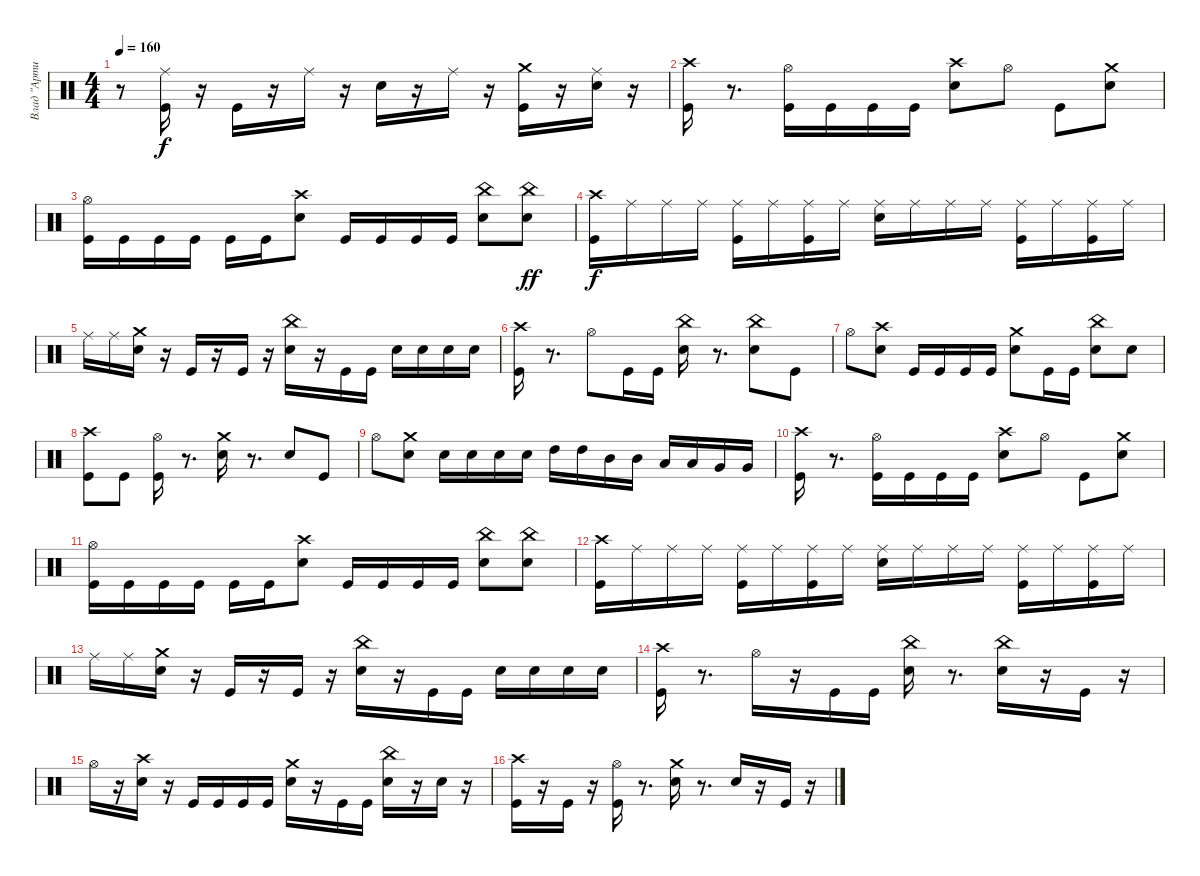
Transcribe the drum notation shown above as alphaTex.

\track ("Влад \"Артист\"" "Влад \"Арти") {instrument percussion}
\staff {score}
\articulation defaults
\ts (4 4)
\tempo 160
\clef neutral
\ks c
r.8{dy f} ("Kick (hit)" "Ride (middle)").16 r.16 "Kick (hit)".16 r.16 "Ride (middle)".16 r.16 "Snare (hit) 2".16 r.16 "Ride (middle)".16 r.16 ("Crash medium (hit)" "Kick (hit)").16 r.16 ("Ride (middle)" "Snare (hit) 2").16 r.16 |
("Kick (hit)" "Crash high (hit)").16 r.8{d} ("Kick (hit)" "Hi-Hat (open)").16 "Kick (hit)".16 "Kick (hit)".16 "Kick (hit)".16 ("Crash high (hit)" "Snare (hit) 2").8 "Hi-Hat (open)".8 "Kick (hit)".8 ("Snare (hit) 2" "Crash medium (hit)").8 |
("Kick (hit)" "Hi-Hat (open)").16 "Kick (hit)".16 "Kick (hit)".16 "Kick (hit)".16 "Kick (hit)".16 "Kick (hit)".16 ("Crash high (hit)" "Snare (hit) 2").8 "Kick (hit)".16 "Kick (hit)".16 "Kick (hit)".16 "Kick (hit)".16 ("China (hit)" "Snare (hit) 2").8 ("China (hit)" "Snare (hit) 2").8{dy ff} |
("Kick (hit)" "Crash high (hit)").16{dy f} "Ride (middle)".16 "Ride (middle)".16 "Ride (middle)".16 ("Kick (hit)" "Ride (middle)").16 "Ride (middle)".16 ("Ride (middle)" "Kick (hit)").16 "Ride (middle)".16 ("Ride (middle)" "Snare (hit) 2").16 "Ride (middle)".16 "Ride (middle)".16 "Ride (middle)".16 ("Kick (hit)" "Ride (middle)").16 "Ride (middle)".16 ("Kick (hit)" "Ride (middle)").16 "Ride (middle)".16 |
"Ride (middle)".16 "Ride (middle)".16 ("Crash medium (hit)" "Snare (hit) 2").16 r.16 "Kick (hit)".16 r.16 "Kick (hit)".16 r.16 ("China (hit)" "Snare (hit) 2").16 r.16 "Kick (hit)".16 "Kick (hit)".16 "Snare (hit) 2".16 "Snare (hit) 2".16 "Snare (hit) 2".16 "Snare (hit) 2".16 |
("Kick (hit)" "Crash high (hit)").16 r.8{d} "Hi-Hat (open)".8 "Kick (hit)".16 "Kick (hit)".16 ("China (hit)" "Snare (hit) 2").16 r.8{d} ("China (hit)" "Snare (hit) 2").8 "Kick (hit)".8 |
"Hi-Hat (open)".8 ("Crash high (hit)" "Snare (hit) 2").8 "Kick (hit)".16 "Kick (hit)".16 "Kick (hit)".16 "Kick (hit)".16 ("Crash medium (hit)" "Snare (hit) 2").8 "Kick (hit)".16 "Kick (hit)".16 ("China (hit)" "Snare (hit) 2").8 "Snare (hit) 2".8 |
("Kick (hit)" "Crash high (hit)").8 "Kick (hit)".8 ("Hi-Hat (open)" "Kick (hit)").16 r.8{d} ("Crash medium (hit)" "Snare (hit) 2").16 r.8{d} "Snare (hit) 2".8 "Kick (hit)".8 |
"Hi-Hat (open)".8 ("Crash medium (hit)" "Snare (hit) 2").8 "Snare (hit) 2".16 "Snare (hit) 2".16 "Snare (hit) 2".16 "Snare (hit) 2".16 "High Tom (hit)".16 "High Tom (hit)".16 "Mid Tom (hit)".16 "Mid Tom (hit)".16 "Low Tom (hit)".16 "Low Tom (hit)".16 "Very Low Tom (hit)".16 "Very Low Tom (hit)".16 |
("Kick (hit)" "Crash high (hit)").16 r.8{d} ("Kick (hit)" "Hi-Hat (open)").16 "Kick (hit)".16 "Kick (hit)".16 "Kick (hit)".16 ("Crash high (hit)" "Snare (hit) 2").8 "Hi-Hat (open)".8 "Kick (hit)".8 ("Snare (hit) 2" "Crash medium (hit)").8 |
("Kick (hit)" "Hi-Hat (open)").16 "Kick (hit)".16 "Kick (hit)".16 "Kick (hit)".16 "Kick (hit)".16 "Kick (hit)".16 ("Crash high (hit)" "Snare (hit) 2").8 "Kick (hit)".16 "Kick (hit)".16 "Kick (hit)".16 "Kick (hit)".16 ("China (hit)" "Snare (hit) 2").8 ("Snare (hit) 2" "China (hit)").8 |
("Kick (hit)" "Crash high (hit)").16 "Ride (middle)".16 "Ride (middle)".16 "Ride (middle)".16 ("Kick (hit)" "Ride (middle)").16 "Ride (middle)".16 ("Ride (middle)" "Kick (hit)").16 "Ride (middle)".16 ("Ride (middle)" "Snare (hit) 2").16 "Ride (middle)".16 "Ride (middle)".16 "Ride (middle)".16 ("Kick (hit)" "Ride (middle)").16 "Ride (middle)".16 ("Kick (hit)" "Ride (middle)").16 "Ride (middle)".16 |
"Ride (middle)".16 "Ride (middle)".16 ("Crash medium (hit)" "Snare (hit) 2").16 r.16 "Kick (hit)".16 r.16 "Kick (hit)".16 r.16 ("China (hit)" "Snare (hit) 2").16 r.16 "Kick (hit)".16 "Kick (hit)".16 "Snare (hit) 2".16 "Snare (hit) 2".16 "Snare (hit) 2".16 "Snare (hit) 2".16 |
("Kick (hit)" "Crash high (hit)").16 r.8{d} "Hi-Hat (open)".16 r.16 "Kick (hit)".16 "Kick (hit)".16 ("China (hit)" "Snare (hit) 2").16 r.8{d} ("China (hit)" "Snare (hit) 2").16 r.16 "Kick (hit)".16 r.16 |
"Hi-Hat (open)".16 r.16 ("Crash high (hit)" "Snare (hit) 2").16 r.16 "Kick (hit)".16 "Kick (hit)".16 "Kick (hit)".16 "Kick (hit)".16 ("Crash medium (hit)" "Snare (hit) 2").16 r.16 "Kick (hit)".16 "Kick (hit)".16 ("China (hit)" "Snare (hit) 2").16 r.16 "Snare (hit) 2".16 r.16 |
("Kick (hit)" "Crash high (hit)").16 r.16 "Kick (hit)".16 r.16 ("Hi-Hat (open)" "Kick (hit)").16 r.8{d} ("Crash medium (hit)" "Snare (hit) 2").16 r.8{d} "Snare (hit) 2".16 r.16 "Kick (hit)".16 r.16
